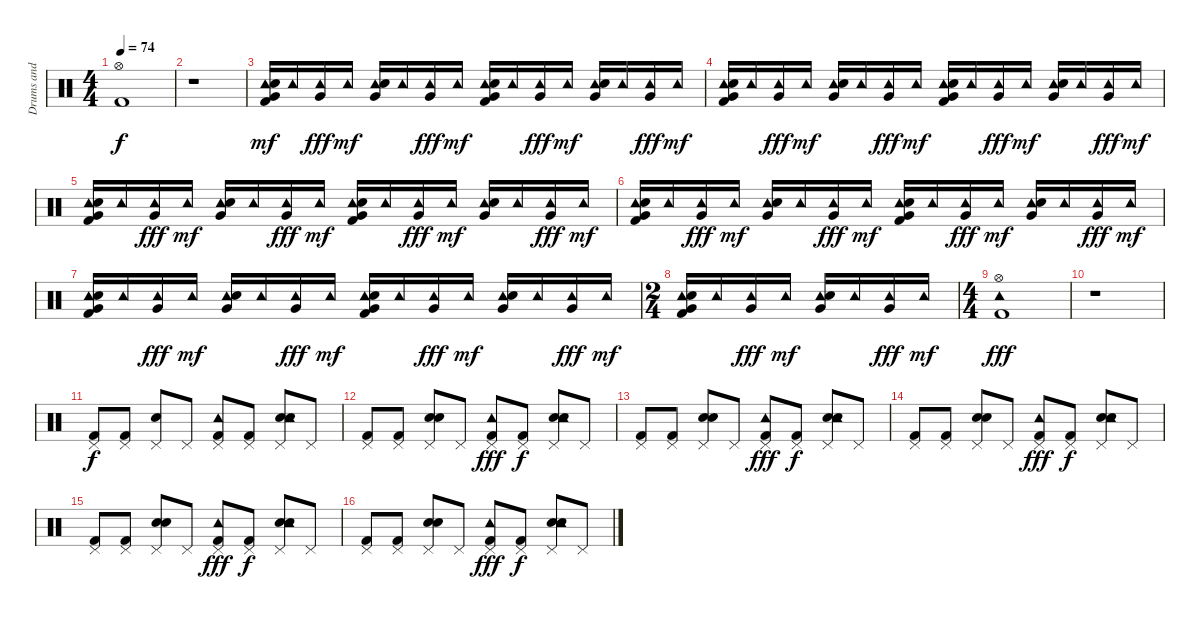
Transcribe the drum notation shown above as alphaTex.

\track ("Drums and Percussion" "Drums and ") {instrument percussion}
\staff {score}
\articulation defaults
\ts (4 4)
\tempo 74
\clef neutral
\ks c
("Hi-Hat (open)" "Kick (hit) 2").1{dy f} |
r.1 |
("Tambourine (hit)" "Snare (hit) 2" "Kick (hit) 2" "Very Low Tom (hit)").16{dy mf} "Tambourine (hit)".16 ("Tambourine (hit)" "Very Low Tom (hit)").16{dy fff} "Tambourine (hit)".16{dy mf} ("Tambourine (hit)" "Snare (hit) 2" "Very Low Tom (hit)").16 "Tambourine (hit)".16 ("Tambourine (hit)" "Very Low Tom (hit)").16{dy fff} "Tambourine (hit)".16{dy mf} ("Tambourine (hit)" "Snare (hit) 2" "Kick (hit) 2" "Very Low Tom (hit)").16 "Tambourine (hit)".16 ("Tambourine (hit)" "Very Low Tom (hit)").16{dy fff} "Tambourine (hit)".16{dy mf} ("Tambourine (hit)" "Snare (hit) 2" "Very Low Tom (hit)").16 "Tambourine (hit)".16 ("Tambourine (hit)" "Very Low Tom (hit)").16{dy fff} "Tambourine (hit)".16{dy mf} |
("Tambourine (hit)" "Snare (hit) 2" "Kick (hit) 2" "Very Low Tom (hit)").16 "Tambourine (hit)".16 ("Tambourine (hit)" "Very Low Tom (hit)").16{dy fff} "Tambourine (hit)".16{dy mf} ("Tambourine (hit)" "Snare (hit) 2" "Very Low Tom (hit)").16 "Tambourine (hit)".16 ("Tambourine (hit)" "Very Low Tom (hit)").16{dy fff} "Tambourine (hit)".16{dy mf} ("Tambourine (hit)" "Snare (hit) 2" "Kick (hit) 2" "Very Low Tom (hit)").16 "Tambourine (hit)".16 ("Tambourine (hit)" "Very Low Tom (hit)").16{dy fff} "Tambourine (hit)".16{dy mf} ("Tambourine (hit)" "Snare (hit) 2" "Very Low Tom (hit)").16 "Tambourine (hit)".16 ("Tambourine (hit)" "Very Low Tom (hit)").16{dy fff} "Tambourine (hit)".16{dy mf} |
("Tambourine (hit)" "Snare (hit) 2" "Kick (hit) 2" "Very Low Tom (hit)").16 "Tambourine (hit)".16 ("Tambourine (hit)" "Very Low Tom (hit)").16{dy fff} "Tambourine (hit)".16{dy mf} ("Tambourine (hit)" "Snare (hit) 2" "Very Low Tom (hit)").16 "Tambourine (hit)".16 ("Tambourine (hit)" "Very Low Tom (hit)").16{dy fff} "Tambourine (hit)".16{dy mf} ("Tambourine (hit)" "Snare (hit) 2" "Kick (hit) 2" "Very Low Tom (hit)").16 "Tambourine (hit)".16 ("Tambourine (hit)" "Very Low Tom (hit)").16{dy fff} "Tambourine (hit)".16{dy mf} ("Tambourine (hit)" "Snare (hit) 2" "Very Low Tom (hit)").16 "Tambourine (hit)".16 ("Tambourine (hit)" "Very Low Tom (hit)").16{dy fff} "Tambourine (hit)".16{dy mf} |
("Tambourine (hit)" "Snare (hit) 2" "Kick (hit) 2" "Very Low Tom (hit)").16 "Tambourine (hit)".16 ("Tambourine (hit)" "Very Low Tom (hit)").16{dy fff} "Tambourine (hit)".16{dy mf} ("Tambourine (hit)" "Snare (hit) 2" "Very Low Tom (hit)").16 "Tambourine (hit)".16 ("Tambourine (hit)" "Very Low Tom (hit)").16{dy fff} "Tambourine (hit)".16{dy mf} ("Tambourine (hit)" "Snare (hit) 2" "Kick (hit) 2" "Very Low Tom (hit)").16 "Tambourine (hit)".16 ("Tambourine (hit)" "Very Low Tom (hit)").16{dy fff} "Tambourine (hit)".16{dy mf} ("Tambourine (hit)" "Snare (hit) 2" "Very Low Tom (hit)").16 "Tambourine (hit)".16 ("Tambourine (hit)" "Very Low Tom (hit)").16{dy fff} "Tambourine (hit)".16{dy mf} |
("Tambourine (hit)" "Snare (hit) 2" "Kick (hit) 2" "Very Low Tom (hit)").16 "Tambourine (hit)".16 ("Tambourine (hit)" "Very Low Tom (hit)").16{dy fff} "Tambourine (hit)".16{dy mf} ("Tambourine (hit)" "Snare (hit) 2" "Very Low Tom (hit)").16 "Tambourine (hit)".16 ("Tambourine (hit)" "Very Low Tom (hit)").16{dy fff} "Tambourine (hit)".16{dy mf} ("Tambourine (hit)" "Snare (hit) 2" "Kick (hit) 2" "Very Low Tom (hit)").16 "Tambourine (hit)".16 ("Tambourine (hit)" "Very Low Tom (hit)").16{dy fff} "Tambourine (hit)".16{dy mf} ("Tambourine (hit)" "Snare (hit) 2" "Very Low Tom (hit)").16 "Tambourine (hit)".16 ("Tambourine (hit)" "Very Low Tom (hit)").16{dy fff} "Tambourine (hit)".16{dy mf} |
\ts (2 4)
("Tambourine (hit)" "Snare (hit) 2" "Kick (hit) 2" "Very Low Tom (hit)").16 "Tambourine (hit)".16 ("Tambourine (hit)" "Very Low Tom (hit)").16{dy fff} "Tambourine (hit)".16{dy mf} ("Tambourine (hit)" "Snare (hit) 2" "Very Low Tom (hit)").16 "Tambourine (hit)".16 ("Tambourine (hit)" "Very Low Tom (hit)").16{dy fff} "Tambourine (hit)".16{dy mf} |
\ts (4 4)
("Hi-Hat (open)" "Tambourine (hit)" "Kick (hit) 2").1{dy fff} |
r.1 |
("Pedal Hi-Hat (hit)" "Kick (hit) 2").8{dy f} ("Pedal Hi-Hat (hit)" "Kick (hit) 2").8 ("Pedal Hi-Hat (hit)" "Snare (hit) 2").8 "Pedal Hi-Hat (hit)".8 ("Pedal Hi-Hat (hit)" "Tambourine (hit)" "Kick (hit) 2").8 ("Pedal Hi-Hat (hit)" "Kick (hit) 2").8 ("Hand Clap (hit)" "Pedal Hi-Hat (hit)" "Tambourine (hit)" "Snare (hit) 2").8 "Pedal Hi-Hat (hit)".8 |
("Pedal Hi-Hat (hit)" "Kick (hit) 2").8 ("Pedal Hi-Hat (hit)" "Kick (hit) 2").8 ("Hand Clap (hit)" "Pedal Hi-Hat (hit)" "Snare (hit) 2").8 "Pedal Hi-Hat (hit)".8 ("Pedal Hi-Hat (hit)" "Tambourine (hit)" "Kick (hit) 2").8{dy fff} ("Pedal Hi-Hat (hit)" "Kick (hit) 2").8{dy f} ("Hand Clap (hit)" "Pedal Hi-Hat (hit)" "Tambourine (hit)" "Snare (hit) 2").8 "Pedal Hi-Hat (hit)".8 |
("Pedal Hi-Hat (hit)" "Kick (hit) 2").8 ("Pedal Hi-Hat (hit)" "Kick (hit) 2").8 ("Hand Clap (hit)" "Pedal Hi-Hat (hit)" "Snare (hit) 2").8 "Pedal Hi-Hat (hit)".8 ("Pedal Hi-Hat (hit)" "Tambourine (hit)" "Kick (hit) 2").8{dy fff} ("Pedal Hi-Hat (hit)" "Kick (hit) 2").8{dy f} ("Hand Clap (hit)" "Pedal Hi-Hat (hit)" "Tambourine (hit)" "Snare (hit) 2").8 "Pedal Hi-Hat (hit)".8 |
("Pedal Hi-Hat (hit)" "Kick (hit) 2").8 ("Pedal Hi-Hat (hit)" "Kick (hit) 2").8 ("Hand Clap (hit)" "Pedal Hi-Hat (hit)" "Snare (hit) 2").8 "Pedal Hi-Hat (hit)".8 ("Pedal Hi-Hat (hit)" "Tambourine (hit)" "Kick (hit) 2").8{dy fff} ("Pedal Hi-Hat (hit)" "Kick (hit) 2").8{dy f} ("Hand Clap (hit)" "Pedal Hi-Hat (hit)" "Tambourine (hit)" "Snare (hit) 2").8 "Pedal Hi-Hat (hit)".8 |
("Pedal Hi-Hat (hit)" "Kick (hit) 2").8 ("Pedal Hi-Hat (hit)" "Kick (hit) 2").8 ("Hand Clap (hit)" "Pedal Hi-Hat (hit)" "Snare (hit) 2").8 "Pedal Hi-Hat (hit)".8 ("Pedal Hi-Hat (hit)" "Tambourine (hit)" "Kick (hit) 2").8{dy fff} ("Pedal Hi-Hat (hit)" "Kick (hit) 2").8{dy f} ("Hand Clap (hit)" "Pedal Hi-Hat (hit)" "Tambourine (hit)" "Snare (hit) 2").8 "Pedal Hi-Hat (hit)".8 |
("Pedal Hi-Hat (hit)" "Kick (hit) 2").8 ("Pedal Hi-Hat (hit)" "Kick (hit) 2").8 ("Hand Clap (hit)" "Pedal Hi-Hat (hit)" "Snare (hit) 2").8 "Pedal Hi-Hat (hit)".8 ("Pedal Hi-Hat (hit)" "Tambourine (hit)" "Kick (hit) 2").8{dy fff} ("Pedal Hi-Hat (hit)" "Kick (hit) 2").8{dy f} ("Hand Clap (hit)" "Pedal Hi-Hat (hit)" "Tambourine (hit)" "Snare (hit) 2").8 "Pedal Hi-Hat (hit)".8
